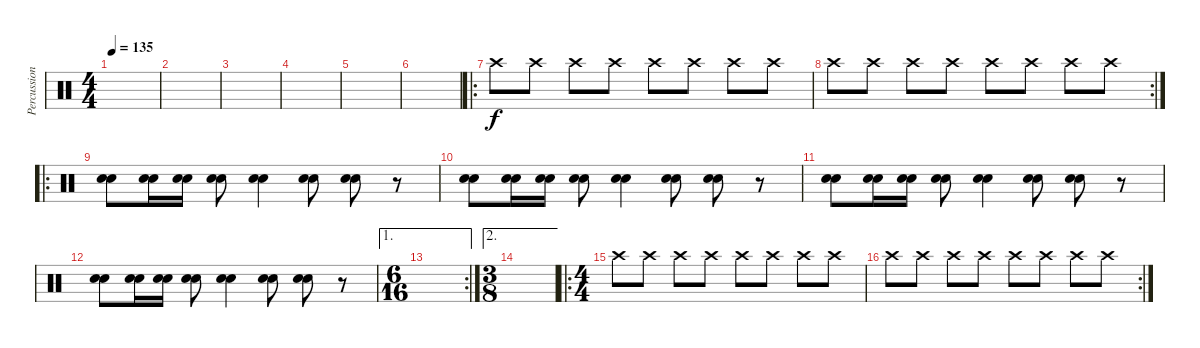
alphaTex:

\track ("Percussion" "Percussion") {instrument percussion}
\staff {score}
\articulation defaults
\ts (4 4)
\tempo 135
\clef neutral
\ks c
|
|
|
|
|
|
\ro "Crash high (hit)".8 "Crash high (hit)".8 "Crash high (hit)".8 "Crash high (hit)".8 "Crash high (hit)".8 "Crash high (hit)".8 "Crash high (hit)".8 "Crash high (hit)".8
|
\rc 2 "Crash high (hit)".8 "Crash high (hit)".8 "Crash high (hit)".8 "Crash high (hit)".8 "Crash high (hit)".8 "Crash high (hit)".8 "Crash high (hit)".8 "Crash high (hit)".8
|
\ro
("Snare (hit) 2" "Electric Snare (hit)").8 ("Snare (hit) 2" "Electric Snare (hit)").16 ("Snare (hit) 2" "Electric Snare (hit)").16 ("Snare (hit) 2" "Electric Snare (hit)").8 ("Snare (hit) 2" "Electric Snare (hit)").4 ("Snare (hit) 2" "Electric Snare (hit)").8 ("Snare (hit) 2" "Electric Snare (hit)").8 r.8 |
("Snare (hit) 2" "Electric Snare (hit)").8 ("Snare (hit) 2" "Electric Snare (hit)").16 ("Snare (hit) 2" "Electric Snare (hit)").16 ("Snare (hit) 2" "Electric Snare (hit)").8 ("Snare (hit) 2" "Electric Snare (hit)").4 ("Snare (hit) 2" "Electric Snare (hit)").8 ("Snare (hit) 2" "Electric Snare (hit)").8 r.8 |
("Snare (hit) 2" "Electric Snare (hit)").8 ("Snare (hit) 2" "Electric Snare (hit)").16 ("Snare (hit) 2" "Electric Snare (hit)").16 ("Snare (hit) 2" "Electric Snare (hit)").8 ("Snare (hit) 2" "Electric Snare (hit)").4 ("Snare (hit) 2" "Electric Snare (hit)").8 ("Snare (hit) 2" "Electric Snare (hit)").8 r.8 |
("Snare (hit) 2" "Electric Snare (hit)").8 ("Snare (hit) 2" "Electric Snare (hit)").16 ("Snare (hit) 2" "Electric Snare (hit)").16 ("Snare (hit) 2" "Electric Snare (hit)").8 ("Snare (hit) 2" "Electric Snare (hit)").4 ("Snare (hit) 2" "Electric Snare (hit)").8 ("Snare (hit) 2" "Electric Snare (hit)").8 r.8 |
\ae 1
\rc 2
\ts (6 16)
|
\ae 2
\ts (3 8)
|
\ro
\ts (4 4)
"Crash high (hit)".8 "Crash high (hit)".8 "Crash high (hit)".8 "Crash high (hit)".8 "Crash high (hit)".8 "Crash high (hit)".8 "Crash high (hit)".8 "Crash high (hit)".8 |
\rc 2 "Crash high (hit)".8 "Crash high (hit)".8 "Crash high (hit)".8 "Crash high (hit)".8 "Crash high (hit)".8 "Crash high (hit)".8 "Crash high (hit)".8 "Crash high (hit)".8
